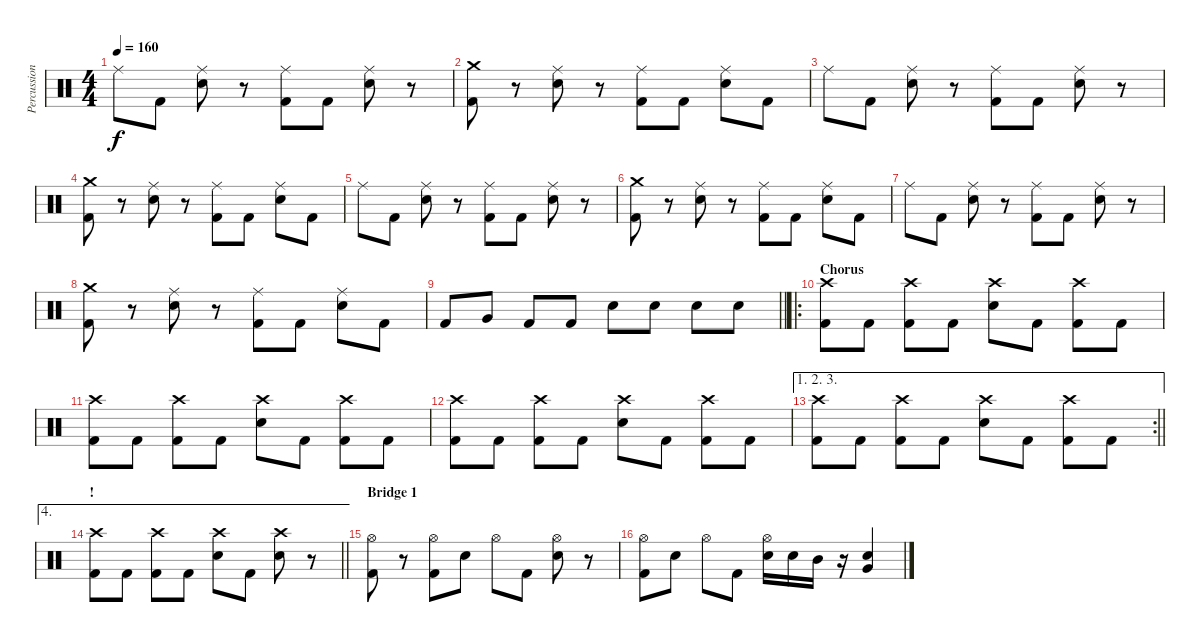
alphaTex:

\track ("Percussion" "Percussion") {instrument percussion}
\staff {score}
\articulation defaults
\ts (4 4)
\tempo 160
\clef neutral
\ks c "Ride (middle)".8{dy f} "Kick (hit) 2".8
("Ride (middle)" "Electric Snare (hit)").8 r.8 ("Ride (middle)" "Kick (hit) 2").8 "Kick (hit) 2".8 ("Ride (middle)" "Electric Snare (hit)").8 r.8 |
("Crash medium (hit)" "Kick (hit) 2").8 r.8 ("Ride (middle)" "Electric Snare (hit)").8 r.8 ("Ride (middle)" "Kick (hit) 2").8 "Kick (hit) 2".8 ("Ride (middle)" "Electric Snare (hit)").8 "Kick (hit) 2".8 |
"Ride (middle)".8 "Kick (hit) 2".8 ("Ride (middle)" "Electric Snare (hit)").8 r.8 ("Ride (middle)" "Kick (hit) 2").8 "Kick (hit) 2".8 ("Ride (middle)" "Electric Snare (hit)").8 r.8 |
("Crash medium (hit)" "Kick (hit) 2").8 r.8 ("Ride (middle)" "Electric Snare (hit)").8 r.8 ("Ride (middle)" "Kick (hit) 2").8 "Kick (hit) 2".8 ("Ride (middle)" "Electric Snare (hit)").8 "Kick (hit) 2".8 |
"Ride (middle)".8 "Kick (hit) 2".8 ("Ride (middle)" "Electric Snare (hit)").8 r.8 ("Ride (middle)" "Kick (hit) 2").8 "Kick (hit) 2".8 ("Ride (middle)" "Electric Snare (hit)").8 r.8 |
("Crash medium (hit)" "Kick (hit) 2").8 r.8 ("Ride (middle)" "Electric Snare (hit)").8 r.8 ("Ride (middle)" "Kick (hit) 2").8 "Kick (hit) 2".8 ("Ride (middle)" "Electric Snare (hit)").8 "Kick (hit) 2".8 |
"Ride (middle)".8 "Kick (hit) 2".8 ("Ride (middle)" "Electric Snare (hit)").8 r.8 ("Ride (middle)" "Kick (hit) 2").8 "Kick (hit) 2".8 ("Ride (middle)" "Electric Snare (hit)").8 r.8 |
("Crash medium (hit)" "Kick (hit) 2").8 r.8 ("Ride (middle)" "Electric Snare (hit)").8 r.8 ("Ride (middle)" "Kick (hit) 2").8 "Kick (hit) 2".8 ("Ride (middle)" "Electric Snare (hit)").8 "Kick (hit) 2".8 |
\barLineRight lightlight "Kick (hit) 2".8 "Very Low Tom (hit)".8 "Kick (hit) 2".8 "Kick (hit) 2".8 "Electric Snare (hit)".8 "Electric Snare (hit)".8 "Electric Snare (hit)".8 "Electric Snare (hit)".8
|
\ro
\section ("" "Chorus")
("Crash high (hit)" "Kick (hit) 2").8 "Kick (hit) 2".8 ("Crash high (hit)" "Kick (hit) 2").8 "Kick (hit) 2".8 ("Crash high (hit)" "Electric Snare (hit)").8 "Kick (hit) 2".8 ("Crash high (hit)" "Kick (hit) 2").8 "Kick (hit) 2".8 |
("Crash high (hit)" "Kick (hit) 2").8 "Kick (hit) 2".8 ("Crash high (hit)" "Kick (hit) 2").8 "Kick (hit) 2".8 ("Crash high (hit)" "Electric Snare (hit)").8 "Kick (hit) 2".8 ("Crash high (hit)" "Kick (hit) 2").8 "Kick (hit) 2".8 |
("Crash high (hit)" "Kick (hit) 2").8 "Kick (hit) 2".8 ("Crash high (hit)" "Kick (hit) 2").8 "Kick (hit) 2".8 ("Crash high (hit)" "Electric Snare (hit)").8 "Kick (hit) 2".8 ("Crash high (hit)" "Kick (hit) 2").8 "Kick (hit) 2".8 |
\ae (1 2 3)
\rc 2
\barLineRight lightlight
("Crash high (hit)" "Kick (hit) 2").8 "Kick (hit) 2".8 ("Crash high (hit)" "Kick (hit) 2").8 "Kick (hit) 2".8 ("Crash high (hit)" "Electric Snare (hit)").8 "Kick (hit) 2".8 ("Crash high (hit)" "Kick (hit) 2").8 "Kick (hit) 2".8 |
\ae 4
\section ("" "!")
\barLineRight lightlight
("Crash high (hit)" "Kick (hit) 2").8 "Kick (hit) 2".8 ("Crash high (hit)" "Kick (hit) 2").8 "Kick (hit) 2".8 ("Crash high (hit)" "Electric Snare (hit)").8 "Kick (hit) 2".8 ("Crash high (hit)" "Electric Snare (hit)").8 r.8 |
\section ("" "Bridge 1")
("Hi-Hat (open)" "Kick (hit) 2").8 r.8 ("Hi-Hat (open)" "Kick (hit) 2").8 "Electric Snare (hit)".8 "Hi-Hat (open)".8 "Kick (hit) 2".8 ("Hi-Hat (open)" "Electric Snare (hit)").8 r.8 |
("Hi-Hat (open)" "Kick (hit) 2").8 "Electric Snare (hit)".8 "Hi-Hat (open)".8 "Kick (hit) 2".8 ("Hi-Hat (open)" "Electric Snare (hit)").16 "Electric Snare (hit)".16 "Mid Tom (hit)".16 r.16 ("Very Low Tom (hit)" "Electric Snare (hit)").4
